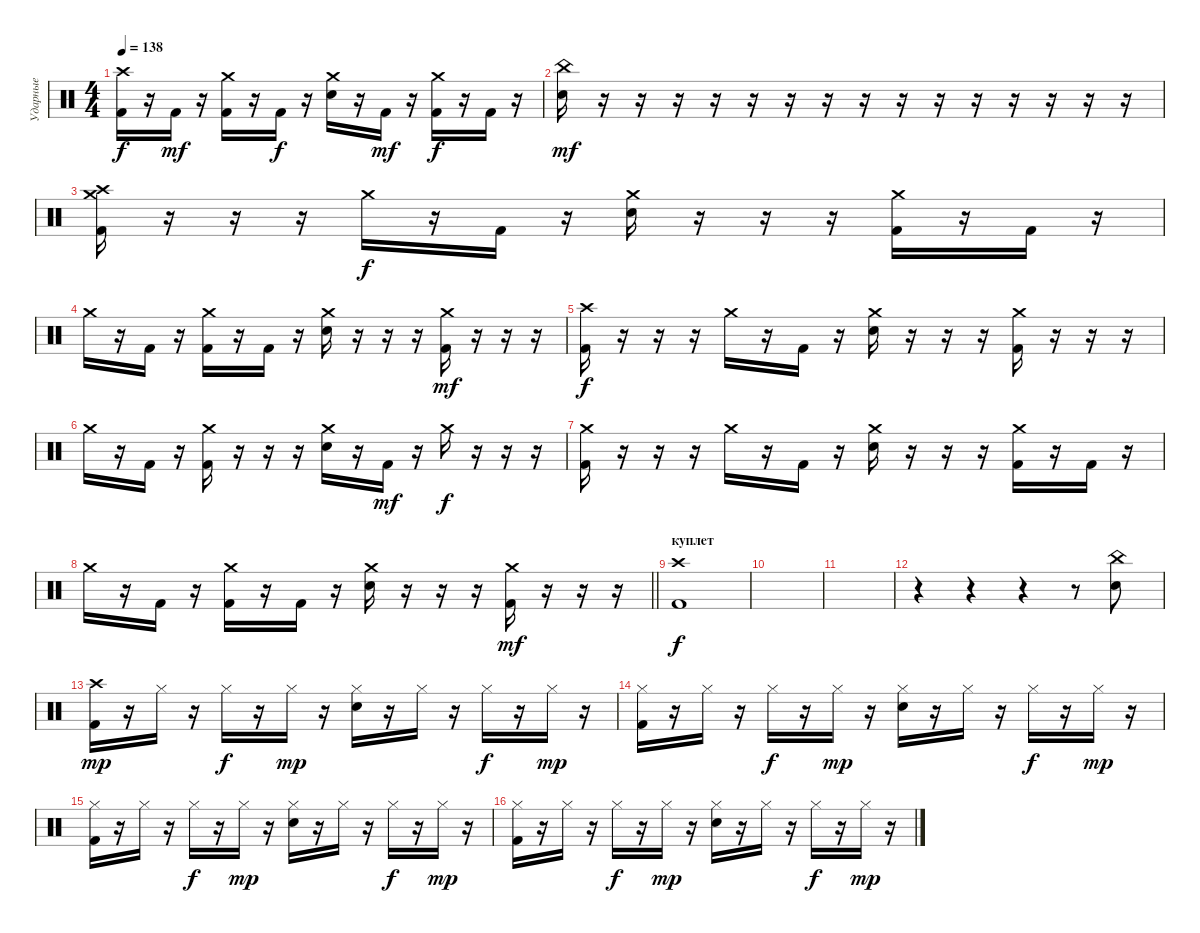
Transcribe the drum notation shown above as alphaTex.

\track ("Ударные" "Ударные") {instrument percussion}
\staff {score}
\articulation defaults
\ts (4 4)
\tempo 138
\clef neutral
\ks c
("Crash high (hit)" "Kick (hit) 2").16{dy f} r.16 "Kick (hit) 2".16{dy mf} r.16 ("Crash medium (hit)" "Kick (hit) 2").16 r.16 "Kick (hit) 2".16{dy f} r.16 ("Crash medium (hit)" "Electric Snare (hit)").16 r.16 "Kick (hit) 2".16{dy mf} r.16 ("Crash medium (hit)" "Kick (hit) 2").16{dy f} r.16 "Kick (hit) 2".16 r.16 |
("China (hit)" "Electric Snare (hit)").16{dy mf} r.16 r.16 r.16 r.16 r.16 r.16 r.16 r.16 r.16 r.16 r.16 r.16 r.16 r.16 r.16 |
("Crash high (hit)" "Crash medium (hit)" "Kick (hit) 2").16 r.16 r.16 r.16 "Crash medium (hit)".16{dy f} r.16 "Kick (hit) 2".16 r.16 ("Crash medium (hit)" "Electric Snare (hit)").16 r.16 r.16 r.16 ("Crash medium (hit)" "Kick (hit) 2").16 r.16 "Kick (hit) 2".16 r.16 |
"Crash medium (hit)".16 r.16 "Kick (hit) 2".16 r.16 ("Crash medium (hit)" "Kick (hit) 2").16 r.16 "Kick (hit) 2".16 r.16 ("Crash medium (hit)" "Electric Snare (hit)").16 r.16 r.16 r.16 ("Crash medium (hit)" "Kick (hit) 2").16{dy mf} r.16 r.16 r.16 |
("Crash high (hit)" "Kick (hit) 2").16{dy f} r.16 r.16 r.16 "Crash medium (hit)".16 r.16 "Kick (hit) 2".16 r.16 ("Crash medium (hit)" "Electric Snare (hit)").16 r.16 r.16 r.16 ("Crash medium (hit)" "Kick (hit) 2").16 r.16 r.16 r.16 |
"Crash medium (hit)".16 r.16 "Kick (hit) 2".16 r.16 ("Crash medium (hit)" "Kick (hit) 2").16 r.16 r.16 r.16 ("Crash medium (hit)" "Electric Snare (hit)").16 r.16 "Kick (hit) 2".16{dy mf} r.16 "Crash medium (hit)".16{dy f} r.16 r.16 r.16 |
("Crash medium (hit)" "Kick (hit) 2").16 r.16 r.16 r.16 "Crash medium (hit)".16 r.16 "Kick (hit) 2".16 r.16 ("Crash medium (hit)" "Electric Snare (hit)").16 r.16 r.16 r.16 ("Crash medium (hit)" "Kick (hit) 2").16 r.16 "Kick (hit) 2".16 r.16 |
\barLineRight lightlight "Crash medium (hit)".16
r.16 "Kick (hit) 2".16 r.16 ("Crash medium (hit)" "Kick (hit) 2").16 r.16 "Kick (hit) 2".16 r.16 ("Crash medium (hit)" "Electric Snare (hit)").16 r.16 r.16 r.16 ("Crash medium (hit)" "Kick (hit) 2").16{dy mf} r.16 r.16 r.16 |
\section ("" "куплет")
("Crash high (hit)" "Kick (hit) 2").1{dy f} |
|
|
r.4 r.4 r.4 r.8 ("China (hit)" "Electric Snare (hit)").8 |
("Crash high (hit)" "Kick (hit) 2").16{dy mp} r.16 "Hi-Hat (closed)".16 r.16 "Hi-Hat (closed)".16{dy f} r.16 "Hi-Hat (closed)".16{dy mp} r.16 ("Hi-Hat (closed)" "Electric Snare (hit)").16 r.16 "Hi-Hat (closed)".16 r.16 "Hi-Hat (closed)".16{dy f} r.16 "Hi-Hat (closed)".16{dy mp} r.16 |
("Hi-Hat (closed)" "Kick (hit) 2").16 r.16 "Hi-Hat (closed)".16 r.16 "Hi-Hat (closed)".16{dy f} r.16 "Hi-Hat (closed)".16{dy mp} r.16 ("Hi-Hat (closed)" "Electric Snare (hit)").16 r.16 "Hi-Hat (closed)".16 r.16 "Hi-Hat (closed)".16{dy f} r.16 "Hi-Hat (closed)".16{dy mp} r.16 |
("Hi-Hat (closed)" "Kick (hit) 2").16 r.16 "Hi-Hat (closed)".16 r.16 "Hi-Hat (closed)".16{dy f} r.16 "Hi-Hat (closed)".16{dy mp} r.16 ("Hi-Hat (closed)" "Electric Snare (hit)").16 r.16 "Hi-Hat (closed)".16 r.16 "Hi-Hat (closed)".16{dy f} r.16 "Hi-Hat (closed)".16{dy mp} r.16 |
("Hi-Hat (closed)" "Kick (hit) 2").16 r.16 "Hi-Hat (closed)".16 r.16 "Hi-Hat (closed)".16{dy f} r.16 "Hi-Hat (closed)".16{dy mp} r.16 ("Hi-Hat (closed)" "Electric Snare (hit)").16 r.16 "Hi-Hat (closed)".16 r.16 "Hi-Hat (closed)".16{dy f} r.16 "Hi-Hat (closed)".16{dy mp} r.16
